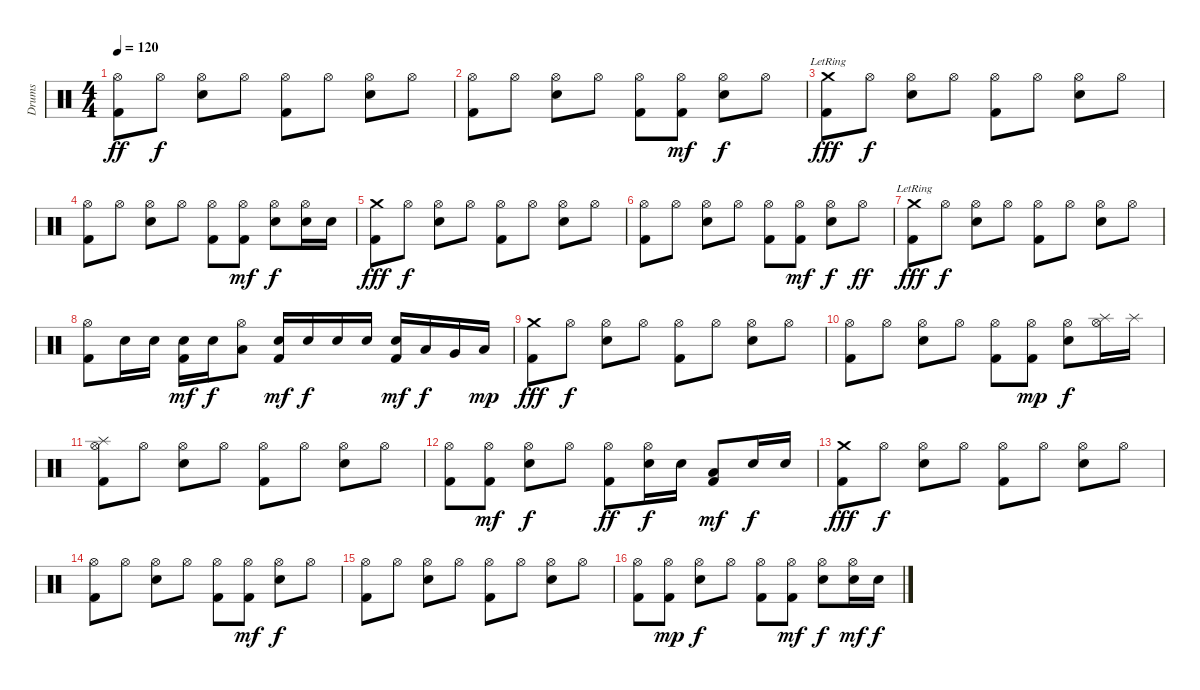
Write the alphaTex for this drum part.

\track ("Drums" "Drums") {instrument percussion}
\staff {score}
\articulation defaults
\ts (4 4)
\tempo 120
\clef neutral
\ks c
("Hi-Hat (open)" "Kick (hit) 2").8{dy ff} "Hi-Hat (open)".8{dy f} ("Hi-Hat (open)" "Electric Snare (hit)").8 "Hi-Hat (open)".8 ("Hi-Hat (open)" "Kick (hit) 2").8 "Hi-Hat (open)".8 ("Hi-Hat (open)" "Electric Snare (hit)").8 "Hi-Hat (open)".8 |
("Hi-Hat (open)" "Kick (hit) 2").8 "Hi-Hat (open)".8 ("Hi-Hat (open)" "Electric Snare (hit)").8 "Hi-Hat (open)".8 ("Hi-Hat (open)" "Kick (hit) 2").8 ("Hi-Hat (open)" "Kick (hit) 2").8{dy mf} ("Hi-Hat (open)" "Electric Snare (hit)").8{dy f} "Hi-Hat (open)".8 |
("Crash medium (hit)"{lr} "Kick (hit) 2").8{dy fff} "Hi-Hat (open)".8{dy f} ("Hi-Hat (open)" "Electric Snare (hit)").8 "Hi-Hat (open)".8 ("Hi-Hat (open)" "Kick (hit) 2").8 "Hi-Hat (open)".8 ("Hi-Hat (open)" "Electric Snare (hit)").8 "Hi-Hat (open)".8 |
("Hi-Hat (open)" "Kick (hit) 2").8 "Hi-Hat (open)".8 ("Hi-Hat (open)" "Electric Snare (hit)").8 "Hi-Hat (open)".8 ("Hi-Hat (open)" "Kick (hit) 2").8 ("Hi-Hat (open)" "Kick (hit) 2").8{dy mf} ("Hi-Hat (open)" "Electric Snare (hit)").8{dy f} ("Hi-Hat (open)" "Electric Snare (hit)").16 "Electric Snare (hit)".16 |
("Crash medium (hit)" "Kick (hit) 2").8{dy fff} "Hi-Hat (open)".8{dy f} ("Hi-Hat (open)" "Electric Snare (hit)").8 "Hi-Hat (open)".8 ("Hi-Hat (open)" "Kick (hit) 2").8 "Hi-Hat (open)".8 ("Hi-Hat (open)" "Electric Snare (hit)").8 "Hi-Hat (open)".8 |
("Hi-Hat (open)" "Kick (hit) 2").8 "Hi-Hat (open)".8 ("Hi-Hat (open)" "Electric Snare (hit)").8 "Hi-Hat (open)".8 ("Hi-Hat (open)" "Kick (hit) 2").8 ("Hi-Hat (open)" "Kick (hit) 2").8{dy mf} ("Hi-Hat (open)" "Electric Snare (hit)").8{dy f} "Hi-Hat (open)".8{dy ff} |
("Crash medium (hit)"{lr} "Kick (hit) 2").8{dy fff} "Hi-Hat (open)".8{dy f} ("Hi-Hat (open)" "Electric Snare (hit)").8 "Hi-Hat (open)".8 ("Hi-Hat (open)" "Kick (hit) 2").8 "Hi-Hat (open)".8 ("Hi-Hat (open)" "Electric Snare (hit)").8 "Hi-Hat (open)".8 |
("Hi-Hat (open)" "Kick (hit) 2").8 "Electric Snare (hit)".16 "Electric Snare (hit)".16 ("Electric Snare (hit)" "Kick (hit) 2").16{dy mf} "Electric Snare (hit)".16{dy f} ("Hi-Hat (open)" "Low Tom (hit)").8 ("Electric Snare (hit)" "Kick (hit) 2").16{dy mf} "Electric Snare (hit)".16{dy f} "Electric Snare (hit)".16 "Electric Snare (hit)".16 ("Electric Snare (hit)" "Kick (hit) 2").16{dy mf} "Low Tom (hit)".16{dy f} "Very Low Tom (hit)".16 "Low Floor Tom (hit)".16{dy mp} |
("Crash medium (hit)" "Kick (hit) 2").8{dy fff} "Hi-Hat (open)".8{dy f} ("Hi-Hat (open)" "Electric Snare (hit)").8 "Hi-Hat (open)".8 ("Hi-Hat (open)" "Kick (hit) 2").8 "Hi-Hat (open)".8 ("Hi-Hat (open)" "Electric Snare (hit)").8 "Hi-Hat (open)".8 |
("Hi-Hat (open)" "Kick (hit) 2").8 "Hi-Hat (open)".8 ("Hi-Hat (open)" "Electric Snare (hit)").8 "Hi-Hat (open)".8 ("Hi-Hat (open)" "Kick (hit) 2").8 ("Hi-Hat (open)" "Kick (hit) 2").8{dy mp} ("Hi-Hat (open)" "Electric Snare (hit)").8{dy f} ("Hi-Hat (open)" "Splash (hit)").16 "Splash (hit)".16 |
("Hi-Hat (open)" "Splash (hit)" "Kick (hit) 2").8 "Hi-Hat (open)".8 ("Hi-Hat (open)" "Electric Snare (hit)").8 "Hi-Hat (open)".8 ("Hi-Hat (open)" "Kick (hit) 2").8 "Hi-Hat (open)".8 ("Hi-Hat (open)" "Electric Snare (hit)").8 "Hi-Hat (open)".8 |
("Hi-Hat (open)" "Kick (hit) 2").8 ("Hi-Hat (open)" "Kick (hit) 2").8{dy mf} ("Hi-Hat (open)" "Electric Snare (hit)").8{dy f} "Hi-Hat (open)".8 ("Hi-Hat (open)" "Kick (hit) 2").8{dy ff} ("Hi-Hat (open)" "Electric Snare (hit)").16{dy f} "Electric Snare (hit)".16 ("Low Tom (hit)" "Kick (hit) 2").8{dy mf} "Electric Snare (hit)".16{dy f} "Electric Snare (hit)".16 |
("Crash medium (hit)" "Kick (hit) 2").8{dy fff} "Hi-Hat (open)".8{dy f} ("Hi-Hat (open)" "Electric Snare (hit)").8 "Hi-Hat (open)".8 ("Hi-Hat (open)" "Kick (hit) 2").8 "Hi-Hat (open)".8 ("Hi-Hat (open)" "Electric Snare (hit)").8 "Hi-Hat (open)".8 |
("Hi-Hat (open)" "Kick (hit) 2").8 "Hi-Hat (open)".8 ("Hi-Hat (open)" "Electric Snare (hit)").8 "Hi-Hat (open)".8 ("Hi-Hat (open)" "Kick (hit) 2").8 ("Hi-Hat (open)" "Kick (hit) 2").8{dy mf} ("Hi-Hat (open)" "Electric Snare (hit)").8{dy f} "Hi-Hat (open)".8 |
("Hi-Hat (open)" "Kick (hit) 2").8 "Hi-Hat (open)".8 ("Hi-Hat (open)" "Electric Snare (hit)").8 "Hi-Hat (open)".8 ("Hi-Hat (open)" "Kick (hit) 2").8 "Hi-Hat (open)".8 ("Hi-Hat (open)" "Electric Snare (hit)").8 "Hi-Hat (open)".8 |
("Hi-Hat (open)" "Kick (hit) 2").8 ("Hi-Hat (open)" "Kick (hit) 2").8{dy mp} ("Hi-Hat (open)" "Electric Snare (hit)").8{dy f} "Hi-Hat (open)".8 ("Hi-Hat (open)" "Kick (hit) 2").8 ("Hi-Hat (open)" "Kick (hit) 2").8{dy mf} ("Hi-Hat (open)" "Electric Snare (hit)").8{dy f} ("Hi-Hat (open)" "Electric Snare (hit)").16{dy mf} "Electric Snare (hit)".16{dy f}
